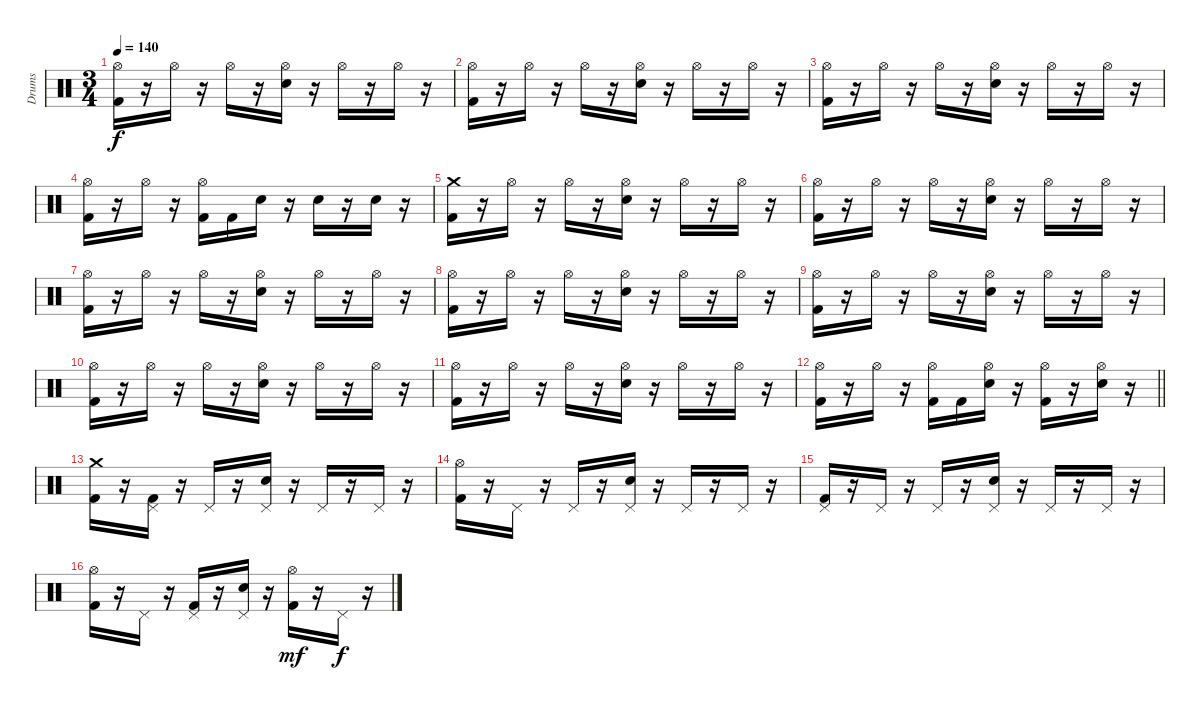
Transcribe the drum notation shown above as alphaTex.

\track ("Drums" "Drums") {instrument percussion}
\staff {score}
\articulation defaults
\ts (3 4)
\tempo 140
\clef neutral
\ks c
("Hi-Hat (open)" "Kick (hit) 2").16{dy f} r.16 "Hi-Hat (open)".16 r.16 "Hi-Hat (open)".16 r.16 ("Hi-Hat (open)" "Electric Snare (hit)").16 r.16 "Hi-Hat (open)".16 r.16 "Hi-Hat (open)".16 r.16 |
("Hi-Hat (open)" "Kick (hit) 2").16 r.16 "Hi-Hat (open)".16 r.16 "Hi-Hat (open)".16 r.16 ("Hi-Hat (open)" "Electric Snare (hit)").16 r.16 "Hi-Hat (open)".16 r.16 "Hi-Hat (open)".16 r.16 |
("Hi-Hat (open)" "Kick (hit) 2").16 r.16 "Hi-Hat (open)".16 r.16 "Hi-Hat (open)".16 r.16 ("Hi-Hat (open)" "Electric Snare (hit)").16 r.16 "Hi-Hat (open)".16 r.16 "Hi-Hat (open)".16 r.16 |
("Hi-Hat (open)" "Kick (hit) 2").16 r.16 "Hi-Hat (open)".16 r.16 ("Hi-Hat (open)" "Kick (hit) 2").16 "Kick (hit) 2".16 "Electric Snare (hit)".16 r.16 "Electric Snare (hit)".16 r.16 "Electric Snare (hit)".16 r.16 |
("Crash medium (hit)" "Kick (hit) 2").16 r.16 "Hi-Hat (open)".16 r.16 "Hi-Hat (open)".16 r.16 ("Hi-Hat (open)" "Electric Snare (hit)").16 r.16 "Hi-Hat (open)".16 r.16 "Hi-Hat (open)".16 r.16 |
("Hi-Hat (open)" "Kick (hit) 2").16 r.16 "Hi-Hat (open)".16 r.16 "Hi-Hat (open)".16 r.16 ("Hi-Hat (open)" "Electric Snare (hit)").16 r.16 "Hi-Hat (open)".16 r.16 "Hi-Hat (open)".16 r.16 |
("Hi-Hat (open)" "Kick (hit) 2").16 r.16 "Hi-Hat (open)".16 r.16 "Hi-Hat (open)".16 r.16 ("Hi-Hat (open)" "Electric Snare (hit)").16 r.16 "Hi-Hat (open)".16 r.16 "Hi-Hat (open)".16 r.16 |
("Hi-Hat (open)" "Kick (hit) 2").16 r.16 "Hi-Hat (open)".16 r.16 "Hi-Hat (open)".16 r.16 ("Hi-Hat (open)" "Electric Snare (hit)").16 r.16 "Hi-Hat (open)".16 r.16 "Hi-Hat (open)".16 r.16 |
("Hi-Hat (open)" "Kick (hit) 2").16 r.16 "Hi-Hat (open)".16 r.16 "Hi-Hat (open)".16 r.16 ("Hi-Hat (open)" "Electric Snare (hit)").16 r.16 "Hi-Hat (open)".16 r.16 "Hi-Hat (open)".16 r.16 |
("Hi-Hat (open)" "Kick (hit) 2").16 r.16 "Hi-Hat (open)".16 r.16 "Hi-Hat (open)".16 r.16 ("Hi-Hat (open)" "Electric Snare (hit)").16 r.16 "Hi-Hat (open)".16 r.16 "Hi-Hat (open)".16 r.16 |
("Hi-Hat (open)" "Kick (hit) 2").16 r.16 "Hi-Hat (open)".16 r.16 "Hi-Hat (open)".16 r.16 ("Hi-Hat (open)" "Electric Snare (hit)").16 r.16 "Hi-Hat (open)".16 r.16 "Hi-Hat (open)".16 r.16 |
\barLineRight lightlight
("Hi-Hat (open)" "Kick (hit) 2").16 r.16 "Hi-Hat (open)".16 r.16 ("Hi-Hat (open)" "Kick (hit) 2").16 "Kick (hit) 2".16 ("Hi-Hat (open)" "Electric Snare (hit)").16 r.16 ("Hi-Hat (open)" "Kick (hit) 2").16 r.16 ("Hi-Hat (open)" "Electric Snare (hit)").16 r.16 |
\section ("" "")
("Crash medium (hit)" "Kick (hit) 2").16 r.16 ("Pedal Hi-Hat (hit)" "Kick (hit) 2").16 r.16 "Pedal Hi-Hat (hit)".16 r.16 ("Pedal Hi-Hat (hit)" "Electric Snare (hit)").16 r.16 "Pedal Hi-Hat (hit)".16 r.16 "Pedal Hi-Hat (hit)".16 r.16 |
("Hi-Hat (open)" "Kick (hit) 2").16 r.16 "Pedal Hi-Hat (hit)".16 r.16 "Pedal Hi-Hat (hit)".16 r.16 ("Pedal Hi-Hat (hit)" "Electric Snare (hit)").16 r.16 "Pedal Hi-Hat (hit)".16 r.16 "Pedal Hi-Hat (hit)".16 r.16 |
("Pedal Hi-Hat (hit)" "Kick (hit) 2").16 r.16 "Pedal Hi-Hat (hit)".16 r.16 "Pedal Hi-Hat (hit)".16 r.16 ("Pedal Hi-Hat (hit)" "Electric Snare (hit)").16 r.16 "Pedal Hi-Hat (hit)".16 r.16 "Pedal Hi-Hat (hit)".16 r.16 |
("Hi-Hat (open)" "Kick (hit) 2").16 r.16 "Pedal Hi-Hat (hit)".16 r.16 ("Pedal Hi-Hat (hit)" "Kick (hit) 2").16 r.16 ("Pedal Hi-Hat (hit)" "Electric Snare (hit)").16 r.16 ("Hi-Hat (open)" "Kick (hit) 2").16{dy mf} r.16 "Pedal Hi-Hat (hit)".16{dy f} r.16
